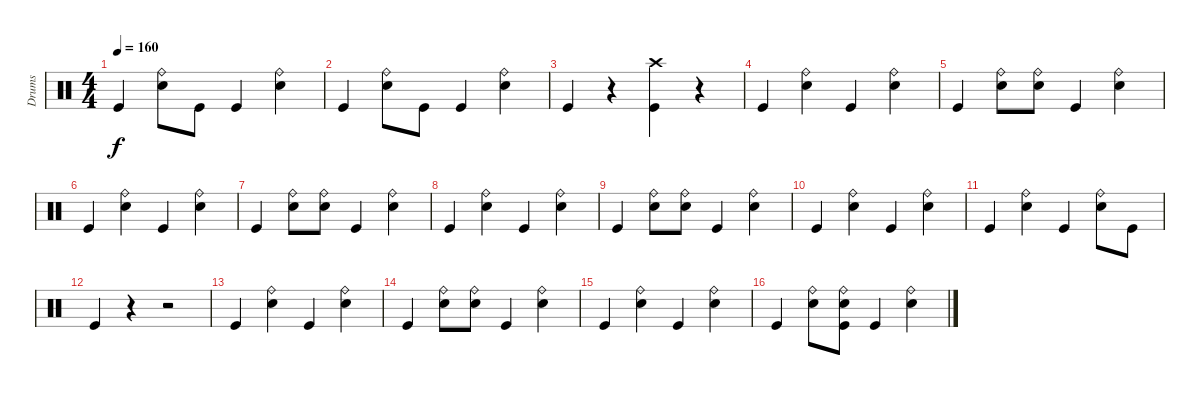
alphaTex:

\track ("Drums" "Drums") {instrument percussion}
\staff {score}
\articulation defaults
\ts (4 4)
\tempo 160
\clef neutral
\ks c "Kick (hit)".4{dy f}
("Snare (hit) 2" "Ride (bell)").8 "Kick (hit)".8 "Kick (hit)".4 ("Snare (hit) 2" "Ride (bell)").4 |
"Kick (hit)".4 ("Snare (hit) 2" "Ride (bell)").8 "Kick (hit)".8 "Kick (hit)".4 ("Snare (hit) 2" "Ride (bell)").4 |
"Kick (hit)".4 r.4 ("Kick (hit)" "Crash high (hit)").4 r.4 |
"Kick (hit)".4 ("Snare (hit) 2" "Ride (bell)").4 "Kick (hit)".4 ("Snare (hit) 2" "Ride (bell)").4 |
"Kick (hit)".4 ("Snare (hit) 2" "Ride (bell)").8 ("Ride (bell)" "Snare (hit) 2").8 "Kick (hit)".4 ("Snare (hit) 2" "Ride (bell)").4 |
"Kick (hit)".4 ("Snare (hit) 2" "Ride (bell)").4 "Kick (hit)".4 ("Snare (hit) 2" "Ride (bell)").4 |
"Kick (hit)".4 ("Snare (hit) 2" "Ride (bell)").8 ("Ride (bell)" "Snare (hit) 2").8 "Kick (hit)".4 ("Snare (hit) 2" "Ride (bell)").4 |
"Kick (hit)".4 ("Snare (hit) 2" "Ride (bell)").4 "Kick (hit)".4 ("Snare (hit) 2" "Ride (bell)").4 |
"Kick (hit)".4 ("Snare (hit) 2" "Ride (bell)").8 ("Ride (bell)" "Snare (hit) 2").8 "Kick (hit)".4 ("Snare (hit) 2" "Ride (bell)").4 |
"Kick (hit)".4 ("Snare (hit) 2" "Ride (bell)").4 "Kick (hit)".4 ("Snare (hit) 2" "Ride (bell)").4 |
"Kick (hit)".4 ("Snare (hit) 2" "Ride (bell)").4 "Kick (hit)".4 ("Snare (hit) 2" "Ride (bell)").8 "Kick (hit)".8 |
"Kick (hit)".4 r.4 r.2 |
"Kick (hit)".4 ("Snare (hit) 2" "Ride (bell)").4 "Kick (hit)".4 ("Snare (hit) 2" "Ride (bell)").4 |
"Kick (hit)".4 ("Snare (hit) 2" "Ride (bell)").8 ("Ride (bell)" "Snare (hit) 2").8 "Kick (hit)".4 ("Snare (hit) 2" "Ride (bell)").4 |
"Kick (hit)".4 ("Snare (hit) 2" "Ride (bell)").4 "Kick (hit)".4 ("Snare (hit) 2" "Ride (bell)").4 |
"Kick (hit)".4 ("Snare (hit) 2" "Ride (bell)").8 ("Snare (hit) 2" "Ride (bell)" "Kick (hit)").8 "Kick (hit)".4 ("Snare (hit) 2" "Ride (bell)").4
